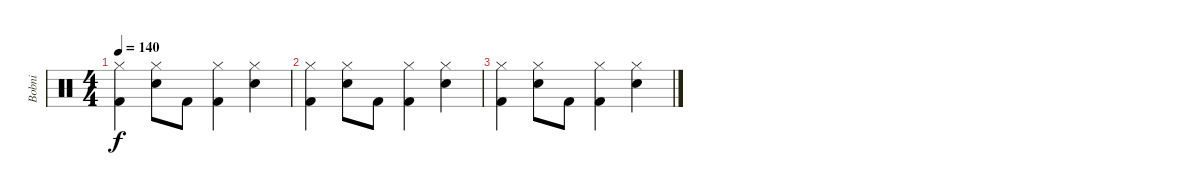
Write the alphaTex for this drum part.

\track ("Bobni" "Bobni") {instrument percussion}
\staff {score}
\articulation defaults
\ts (4 4)
\tempo 140
\clef neutral
\ks c
("Hi-Hat (closed)" "Kick (hit) 2").4{dy f} ("Hi-Hat (closed)" "Snare (hit) 2").8 "Kick (hit) 2".8 ("Hi-Hat (closed)" "Kick (hit) 2").4 ("Hi-Hat (closed)" "Snare (hit) 2").4 |
("Hi-Hat (closed)" "Kick (hit) 2").4 ("Hi-Hat (closed)" "Snare (hit) 2").8 "Kick (hit) 2".8 ("Hi-Hat (closed)" "Kick (hit) 2").4 ("Hi-Hat (closed)" "Snare (hit) 2").4 |
("Hi-Hat (closed)" "Kick (hit) 2").4 ("Hi-Hat (closed)" "Snare (hit) 2").8 "Kick (hit) 2".8 ("Hi-Hat (closed)" "Kick (hit) 2").4 ("Hi-Hat (closed)" "Snare (hit) 2").4
